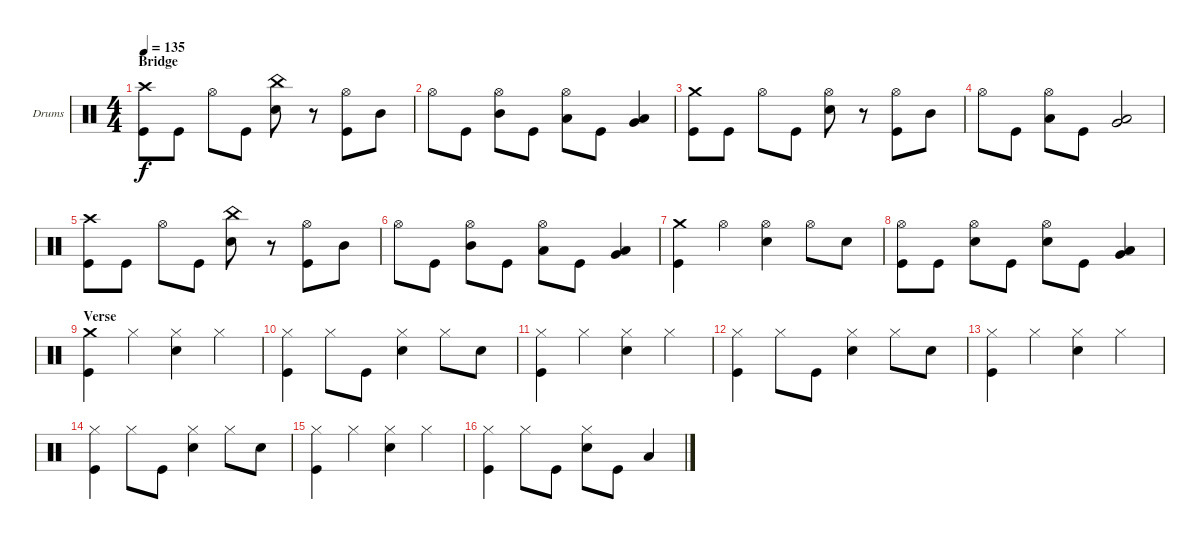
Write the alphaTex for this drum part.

\defaultSystemsLayout 4
\bracketExtendMode groupsimilarinstruments
\firstSystemTrackNameOrientation horizontal
\otherSystemsTrackNameOrientation horizontal
\track ("Drumkit" "Drums") {instrument percussion}
\staff {score}
\articulation defaults
\ts (4 4)
\section ("" "Bridge")
\tempo 135
\clef neutral
\scale
0.5
\ks c
("Crash high (hit)" "Kick (hit)").8{dy f} "Kick (hit)".8 "Hi-Hat (open)".8 "Kick (hit)".8 ("China (hit)" "Snare (hit) 2").8 r.8 ("Hi-Hat (open)" "Kick (hit)").8 "Mid Tom (hit)".8 |
\scale
0.5 "Hi-Hat (open)".8 "Kick (hit)".8 ("Hi-Hat (open)" "Mid Tom (hit)").8 "Kick (hit)".8 ("Hi-Hat (open)" "Low Tom (hit)").8 "Kick (hit)".8 ("Low Tom (hit)" "Very Low Tom (hit)").4 |
\scale
0.5 ("Crash medium (hit)" "Kick (hit)").8 "Kick (hit)".8 "Hi-Hat (open)".8 "Kick (hit)".8 ("Hi-Hat (open)" "Snare (hit) 2").8 r.8 ("Hi-Hat (open)" "Kick (hit)").8 "Mid Tom (hit)".8 |
\scale
0.5 "Hi-Hat (open)".8 "Kick (hit)".8 ("Hi-Hat (open)" "Low Tom (hit)").8 "Kick (hit)".8 ("Low Tom (hit)" "Very Low Tom (hit)").2 |
\scale
0.5 ("Crash high (hit)" "Kick (hit)").8 "Kick (hit)".8 "Hi-Hat (open)".8 "Kick (hit)".8 ("China (hit)" "Snare (hit) 2").8 r.8 ("Hi-Hat (open)" "Kick (hit)").8 "Mid Tom (hit)".8 |
\scale
0.5 "Hi-Hat (open)".8 "Kick (hit)".8 ("Hi-Hat (open)" "Mid Tom (hit)").8 "Kick (hit)".8 ("Hi-Hat (open)" "Low Tom (hit)").8 "Kick (hit)".8 ("Low Tom (hit)" "Very Low Tom (hit)").4 |
\scale
0.5 ("Crash medium (hit)" "Kick (hit)").4 "Hi-Hat (open)".4 ("Hi-Hat (open)" "Snare (hit) 2").4 "Hi-Hat (open)".8 "Snare (hit) 2".8 |
\scale
0.5 ("Hi-Hat (open)" "Kick (hit)").8 "Kick (hit)".8 ("Hi-Hat (open)" "Snare (hit) 2").8 "Kick (hit)".8 ("Hi-Hat (open)" "Snare (hit) 2").8 "Kick (hit)".8 ("Low Tom (hit)" "Very Low Tom (hit)").4 |
\section ("" "Verse")
\scale
0.5 ("Crash medium (hit)" "Kick (hit)").4 "Hi-Hat (closed)".4 ("Hi-Hat (closed)" "Snare (hit) 2").4 "Hi-Hat (closed)".4 |
\scale
0.5 ("Hi-Hat (closed)" "Kick (hit)").4 "Hi-Hat (closed)".8 "Kick (hit)".8 ("Hi-Hat (closed)" "Snare (hit) 2").4 "Hi-Hat (closed)".8 "Snare (hit) 2".8 |
\scale
0.5 ("Hi-Hat (closed)" "Kick (hit)").4 "Hi-Hat (closed)".4 ("Hi-Hat (closed)" "Snare (hit) 2").4 "Hi-Hat (closed)".4 |
\scale
0.5 ("Hi-Hat (closed)" "Kick (hit)").4 "Hi-Hat (closed)".8 "Kick (hit)".8 ("Hi-Hat (closed)" "Snare (hit) 2").4 "Hi-Hat (closed)".8 "Snare (hit) 2".8 |
\scale
0.5 ("Hi-Hat (closed)" "Kick (hit)").4 "Hi-Hat (closed)".4 ("Hi-Hat (closed)" "Snare (hit) 2").4 "Hi-Hat (closed)".4 |
\scale
0.5 ("Hi-Hat (closed)" "Kick (hit)").4 "Hi-Hat (closed)".8 "Kick (hit)".8 ("Hi-Hat (closed)" "Snare (hit) 2").4 "Hi-Hat (closed)".8 "Snare (hit) 2".8 |
\scale
0.5 ("Hi-Hat (closed)" "Kick (hit)").4 "Hi-Hat (closed)".4 ("Hi-Hat (closed)" "Snare (hit) 2").4 "Hi-Hat (closed)".4 |
\scale
0.5 ("Hi-Hat (closed)" "Kick (hit)").4 "Hi-Hat (closed)".8 "Kick (hit)".8 ("Hi-Hat (closed)" "Snare (hit) 2").8 "Kick (hit)".8 "Low Tom (hit)".4
